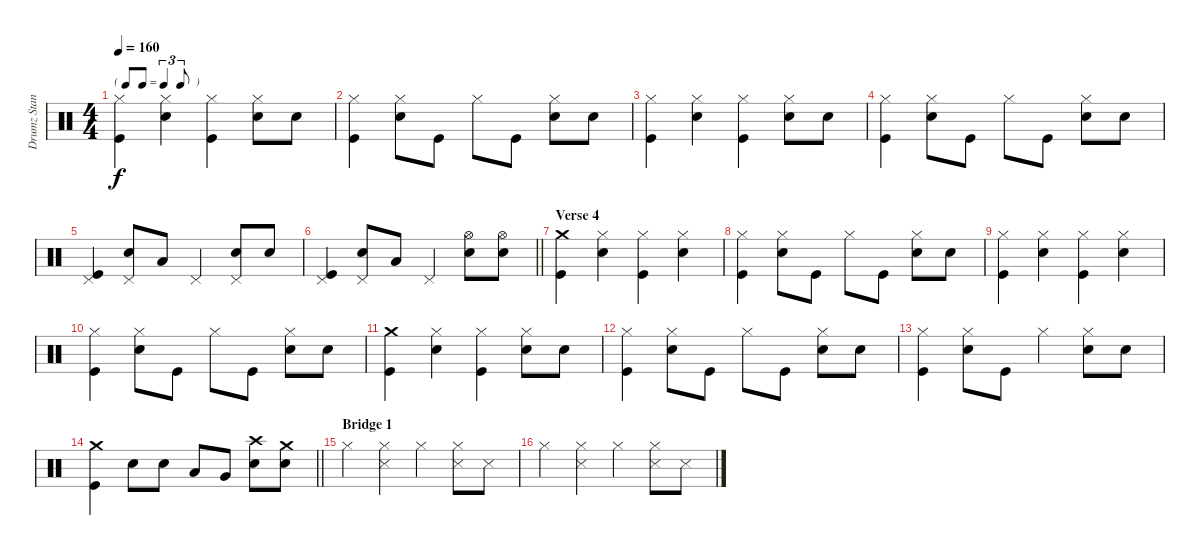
\track ("Drumz Standard" "Drumz Stan") {instrument percussion}
\staff {score}
\articulation defaults
\ts (4 4)
\tf triplet8th
\tempo 160
\clef neutral
\ks c
("Hi-Hat (closed)" "Kick (hit)").4{dy f} ("Hi-Hat (closed)" "Electric Snare (hit)").4 ("Hi-Hat (closed)" "Kick (hit)").4 ("Hi-Hat (closed)" "Electric Snare (hit)").8 "Electric Snare (hit)".8 |
("Hi-Hat (closed)" "Kick (hit)").4 ("Hi-Hat (closed)" "Electric Snare (hit)").8 "Kick (hit)".8 "Hi-Hat (closed)".8 "Kick (hit)".8 ("Hi-Hat (closed)" "Electric Snare (hit)").8 "Electric Snare (hit)".8 |
("Hi-Hat (closed)" "Kick (hit)").4 ("Hi-Hat (closed)" "Electric Snare (hit)").4 ("Hi-Hat (closed)" "Kick (hit)").4 ("Hi-Hat (closed)" "Electric Snare (hit)").8 "Electric Snare (hit)".8 |
("Hi-Hat (closed)" "Kick (hit)").4 ("Hi-Hat (closed)" "Electric Snare (hit)").8 "Kick (hit)".8 "Hi-Hat (closed)".8 "Kick (hit)".8 ("Hi-Hat (closed)" "Electric Snare (hit)").8 "Electric Snare (hit)".8 |
("Pedal Hi-Hat (hit)" "Kick (hit)").4 ("Pedal Hi-Hat (hit)" "Electric Snare (hit)").8 "Low Tom (hit)".8 "Pedal Hi-Hat (hit)".4 ("Pedal Hi-Hat (hit)" "Electric Snare (hit)").8 "Electric Snare (hit)".8 |
\barLineRight lightlight
("Pedal Hi-Hat (hit)" "Kick (hit)").4 ("Pedal Hi-Hat (hit)" "Electric Snare (hit)").8 "Low Tom (hit)".8 "Pedal Hi-Hat (hit)".4 ("Hi-Hat (open)" "Electric Snare (hit)").8 ("Hi-Hat (open)" "Electric Snare (hit)").8 |
\section ("" "Verse 4")
("Crash medium (hit)" "Kick (hit)").4 ("Hi-Hat (closed)" "Electric Snare (hit)").4 ("Hi-Hat (closed)" "Kick (hit)").4 ("Hi-Hat (closed)" "Electric Snare (hit)").4 |
("Hi-Hat (closed)" "Kick (hit)").4 ("Hi-Hat (closed)" "Electric Snare (hit)").8 "Kick (hit)".8 "Hi-Hat (closed)".8 "Kick (hit)".8 ("Hi-Hat (closed)" "Electric Snare (hit)").8 "Electric Snare (hit)".8 |
("Hi-Hat (closed)" "Kick (hit)").4 ("Hi-Hat (closed)" "Electric Snare (hit)").4 ("Hi-Hat (closed)" "Kick (hit)").4 ("Hi-Hat (closed)" "Electric Snare (hit)").4 |
("Hi-Hat (closed)" "Kick (hit)").4 ("Hi-Hat (closed)" "Electric Snare (hit)").8 "Kick (hit)".8 "Hi-Hat (closed)".8 "Kick (hit)".8 ("Hi-Hat (closed)" "Electric Snare (hit)").8 "Electric Snare (hit)".8 |
("Crash medium (hit)" "Kick (hit)").4 ("Hi-Hat (closed)" "Electric Snare (hit)").4 ("Hi-Hat (closed)" "Kick (hit)").4 ("Hi-Hat (closed)" "Electric Snare (hit)").8 "Electric Snare (hit)".8 |
("Hi-Hat (closed)" "Kick (hit)").4 ("Hi-Hat (closed)" "Electric Snare (hit)").8 "Kick (hit)".8 "Hi-Hat (closed)".8 "Kick (hit)".8 ("Hi-Hat (closed)" "Electric Snare (hit)").8 "Electric Snare (hit)".8 |
("Hi-Hat (closed)" "Kick (hit)").4 ("Hi-Hat (closed)" "Electric Snare (hit)").8 "Kick (hit)".8 "Hi-Hat (closed)".4 ("Hi-Hat (closed)" "Electric Snare (hit)").8 "Electric Snare (hit)".8 |
\barLineRight lightlight
("Crash medium (hit)" "Kick (hit)").4 "Electric Snare (hit)".8 "Electric Snare (hit)".8 "Low Tom (hit)".8 "Very Low Tom (hit)".8 ("Crash high (hit)" "Electric Snare (hit)").8 ("Crash medium (hit)" "Electric Snare (hit)").8 |
\section ("" "Bridge 1")
"Hi-Hat (closed)".4 ("Hi-Hat (closed)" "Snare (side stick) 3").4 "Hi-Hat (closed)".4 ("Hi-Hat (closed)" "Snare (side stick) 3").8 "Snare (side stick) 3".8 |
"Hi-Hat (closed)".4 ("Hi-Hat (closed)" "Snare (side stick) 3").4 "Hi-Hat (closed)".4 ("Hi-Hat (closed)" "Snare (side stick) 3").8 "Snare (side stick) 3".8
